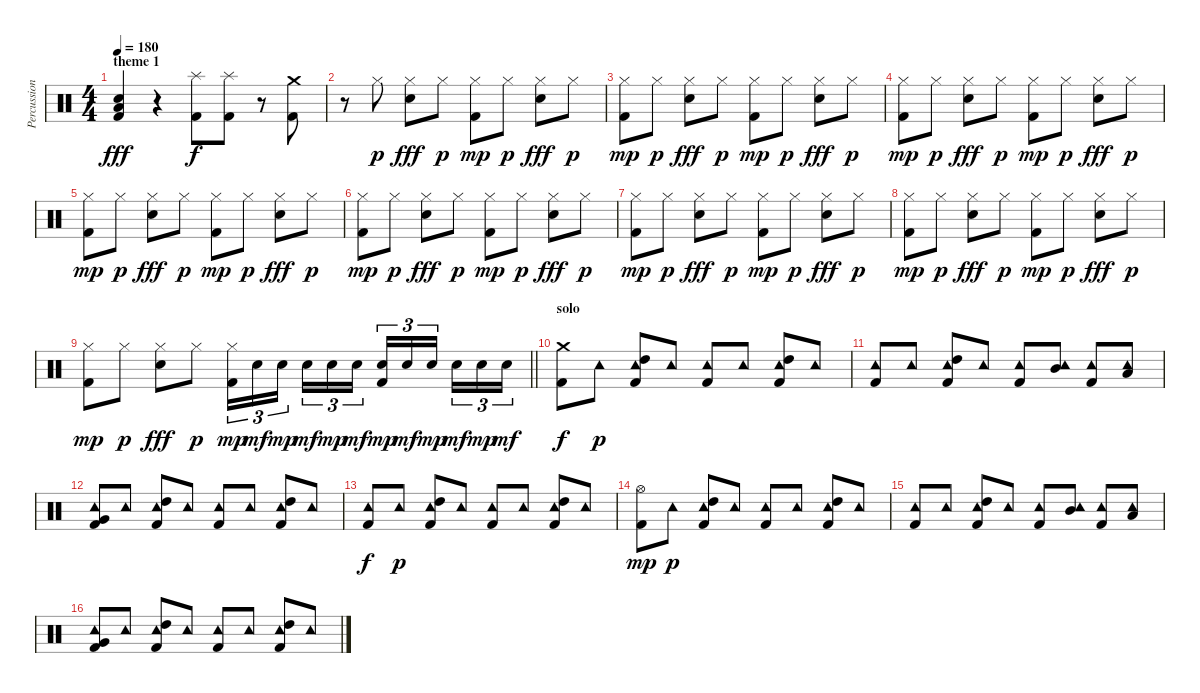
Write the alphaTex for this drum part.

\track ("Percussions" "Percussion") {instrument percussion}
\staff {score}
\articulation defaults
\ts (4 4)
\section ("" "theme 1")
\tempo 180
\clef neutral
\ks c
("Low Tom (hit)" "Electric Snare (hit)" "Kick (hit) 2").4{dy fff} r.4 ("Splash (hit)" "Kick (hit) 2").8{dy f} ("Splash (hit)" "Kick (hit) 2").8 r.8 ("Crash medium (hit)" "Kick (hit) 2").8 |
r.8 "Hi-Hat (closed)".8{dy p} ("Hi-Hat (closed)" "Electric Snare (hit)").8{dy fff} "Hi-Hat (closed)".8{dy p} ("Hi-Hat (closed)" "Kick (hit) 2").8{dy mp} "Hi-Hat (closed)".8{dy p} ("Hi-Hat (closed)" "Electric Snare (hit)").8{dy fff} "Hi-Hat (closed)".8{dy p} |
("Hi-Hat (closed)" "Kick (hit) 2").8{dy mp} "Hi-Hat (closed)".8{dy p} ("Hi-Hat (closed)" "Electric Snare (hit)").8{dy fff} "Hi-Hat (closed)".8{dy p} ("Hi-Hat (closed)" "Kick (hit) 2").8{dy mp} "Hi-Hat (closed)".8{dy p} ("Hi-Hat (closed)" "Electric Snare (hit)").8{dy fff} "Hi-Hat (closed)".8{dy p} |
("Hi-Hat (closed)" "Kick (hit) 2").8{dy mp} "Hi-Hat (closed)".8{dy p} ("Hi-Hat (closed)" "Electric Snare (hit)").8{dy fff} "Hi-Hat (closed)".8{dy p} ("Hi-Hat (closed)" "Kick (hit) 2").8{dy mp} "Hi-Hat (closed)".8{dy p} ("Hi-Hat (closed)" "Electric Snare (hit)").8{dy fff} "Hi-Hat (closed)".8{dy p} |
("Hi-Hat (closed)" "Kick (hit) 2").8{dy mp} "Hi-Hat (closed)".8{dy p} ("Hi-Hat (closed)" "Electric Snare (hit)").8{dy fff} "Hi-Hat (closed)".8{dy p} ("Hi-Hat (closed)" "Kick (hit) 2").8{dy mp} "Hi-Hat (closed)".8{dy p} ("Hi-Hat (closed)" "Electric Snare (hit)").8{dy fff} "Hi-Hat (closed)".8{dy p} |
("Hi-Hat (closed)" "Kick (hit) 2").8{dy mp} "Hi-Hat (closed)".8{dy p} ("Hi-Hat (closed)" "Electric Snare (hit)").8{dy fff} "Hi-Hat (closed)".8{dy p} ("Hi-Hat (closed)" "Kick (hit) 2").8{dy mp} "Hi-Hat (closed)".8{dy p} ("Hi-Hat (closed)" "Electric Snare (hit)").8{dy fff} "Hi-Hat (closed)".8{dy p} |
("Hi-Hat (closed)" "Kick (hit) 2").8{dy mp} "Hi-Hat (closed)".8{dy p} ("Hi-Hat (closed)" "Electric Snare (hit)").8{dy fff} "Hi-Hat (closed)".8{dy p} ("Hi-Hat (closed)" "Kick (hit) 2").8{dy mp} "Hi-Hat (closed)".8{dy p} ("Hi-Hat (closed)" "Electric Snare (hit)").8{dy fff} "Hi-Hat (closed)".8{dy p} |
("Hi-Hat (closed)" "Kick (hit) 2").8{dy mp} "Hi-Hat (closed)".8{dy p} ("Hi-Hat (closed)" "Electric Snare (hit)").8{dy fff} "Hi-Hat (closed)".8{dy p} ("Hi-Hat (closed)" "Kick (hit) 2").8{dy mp} "Hi-Hat (closed)".8{dy p} ("Hi-Hat (closed)" "Electric Snare (hit)").8{dy fff} "Hi-Hat (closed)".8{dy p} |
\barLineRight lightlight
("Hi-Hat (closed)" "Kick (hit) 2").8{dy mp} "Hi-Hat (closed)".8{dy p} ("Hi-Hat (closed)" "Electric Snare (hit)").8{dy fff} "Hi-Hat (closed)".8{dy p} ("Hi-Hat (closed)" "Kick (hit) 2").16{tu (3 2) dy mp} "Electric Snare (hit)".16{tu (3 2) dy mf} "Electric Snare (hit)".16{tu (3 2) dy mp beam splitsecondary} "Electric Snare (hit)".16{tu (3 2) dy mf} "Electric Snare (hit)".16{tu (3 2) dy mp} "Electric Snare (hit)".16{tu (3 2) dy mf} ("Electric Snare (hit)" "Kick (hit) 2").16{tu (3 2) dy mp} "Electric Snare (hit)".16{tu (3 2) dy mf} "Electric Snare (hit)".16{tu (3 2) dy mp beam splitsecondary} "Electric Snare (hit)".16{tu (3 2) dy mf} "Electric Snare (hit)".16{tu (3 2) dy mp} "Electric Snare (hit)".16{tu (3 2) dy mf} |
\section ("" "solo")
("Crash medium (hit)" "Kick (hit) 2").8{dy f} "Tambourine (hit)".8{dy p} ("Tambourine (hit)" "High Tom (hit)" "Kick (hit) 2").8 "Tambourine (hit)".8 ("Tambourine (hit)" "Kick (hit) 2").8 "Tambourine (hit)".8 ("Tambourine (hit)" "High Tom (hit)" "Kick (hit) 2").8 "Tambourine (hit)".8 |
("Tambourine (hit)" "Kick (hit) 2").8 "Tambourine (hit)".8 ("Tambourine (hit)" "High Tom (hit)" "Kick (hit) 2").8 "Tambourine (hit)".8 ("Tambourine (hit)" "Kick (hit) 2").8 ("Tambourine (hit)" "Mid Tom (hit)").8 ("Tambourine (hit)" "Kick (hit) 2").8 ("Tambourine (hit)" "Low Tom (hit)").8 |
("Tambourine (hit)" "Very Low Tom (hit)" "Kick (hit) 2").8 "Tambourine (hit)".8 ("Tambourine (hit)" "High Tom (hit)" "Kick (hit) 2").8 "Tambourine (hit)".8 ("Tambourine (hit)" "Kick (hit) 2").8 "Tambourine (hit)".8 ("Tambourine (hit)" "High Tom (hit)" "Kick (hit) 2").8 "Tambourine (hit)".8 |
("Tambourine (hit)" "Kick (hit) 2").8{dy f} "Tambourine (hit)".8{dy p} ("Tambourine (hit)" "High Tom (hit)" "Kick (hit) 2").8 "Tambourine (hit)".8 ("Tambourine (hit)" "Kick (hit) 2").8 "Tambourine (hit)".8 ("Tambourine (hit)" "High Tom (hit)" "Kick (hit) 2").8 "Tambourine (hit)".8 |
("Hi-Hat (open)" "Kick (hit) 2").8{dy mp} "Tambourine (hit)".8{dy p} ("Tambourine (hit)" "High Tom (hit)" "Kick (hit) 2").8 "Tambourine (hit)".8 ("Tambourine (hit)" "Kick (hit) 2").8 "Tambourine (hit)".8 ("Tambourine (hit)" "High Tom (hit)" "Kick (hit) 2").8 "Tambourine (hit)".8 |
("Tambourine (hit)" "Kick (hit) 2").8 "Tambourine (hit)".8 ("Tambourine (hit)" "High Tom (hit)" "Kick (hit) 2").8 "Tambourine (hit)".8 ("Tambourine (hit)" "Kick (hit) 2").8 ("Tambourine (hit)" "Mid Tom (hit)").8 ("Tambourine (hit)" "Kick (hit) 2").8 ("Tambourine (hit)" "Low Tom (hit)").8 |
("Tambourine (hit)" "Very Low Tom (hit)" "Kick (hit) 2").8 "Tambourine (hit)".8 ("Tambourine (hit)" "High Tom (hit)" "Kick (hit) 2").8 "Tambourine (hit)".8 ("Tambourine (hit)" "Kick (hit) 2").8 "Tambourine (hit)".8 ("Tambourine (hit)" "High Tom (hit)" "Kick (hit) 2").8 "Tambourine (hit)".8
